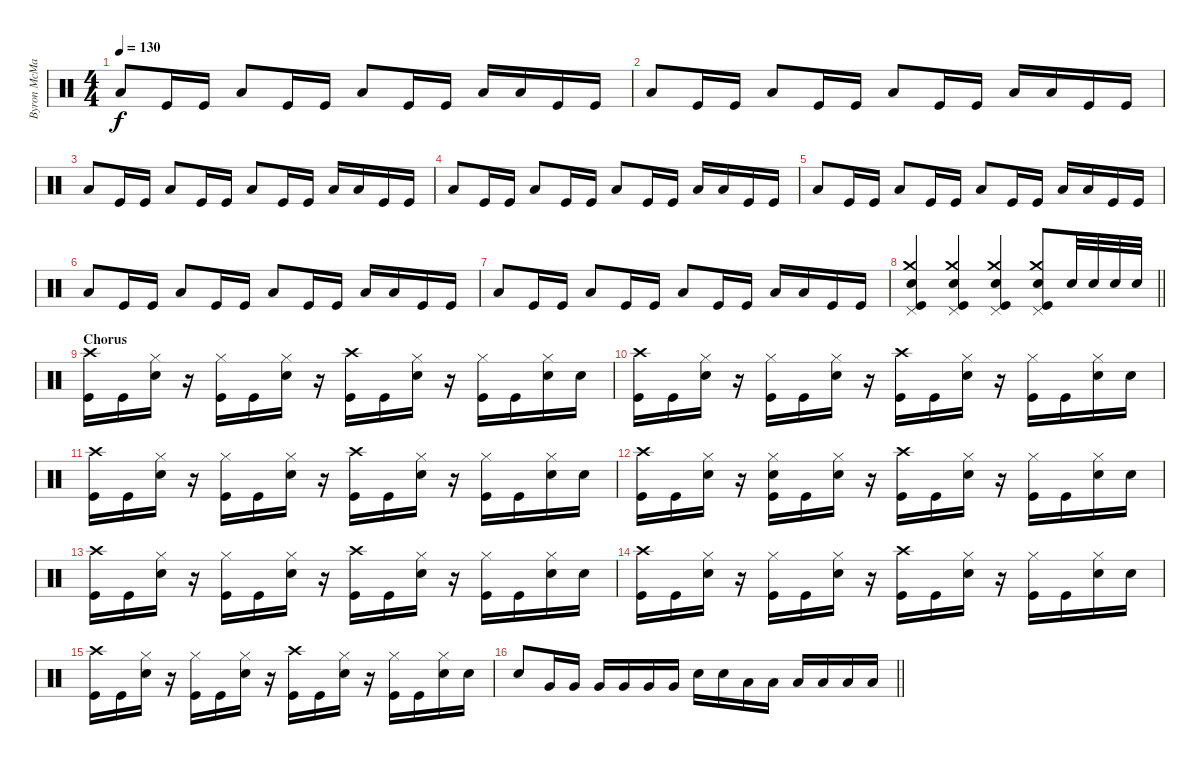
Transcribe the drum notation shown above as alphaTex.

\track ("Byron McMackin" "Byron McMa") {instrument percussion}
\staff {score}
\articulation defaults
\ts (4 4)
\tempo 130
\clef neutral
\ks c "Low Tom (hit)".8{dy f} "Kick (hit)".16 "Kick (hit)".16 "Low Tom (hit)".8 "Kick (hit)".16 "Kick (hit)".16 "Low Tom (hit)".8 "Kick (hit)".16 "Kick (hit)".16 "Low Tom (hit)".16 "Low Tom (hit)".16 "Kick (hit)".16 "Kick (hit)".16
|
"Low Tom (hit)".8 "Kick (hit)".16 "Kick (hit)".16 "Low Tom (hit)".8 "Kick (hit)".16 "Kick (hit)".16 "Low Tom (hit)".8 "Kick (hit)".16 "Kick (hit)".16 "Low Tom (hit)".16 "Low Tom (hit)".16 "Kick (hit)".16 "Kick (hit)".16 |
"Low Tom (hit)".8 "Kick (hit)".16 "Kick (hit)".16 "Low Tom (hit)".8 "Kick (hit)".16 "Kick (hit)".16 "Low Tom (hit)".8 "Kick (hit)".16 "Kick (hit)".16 "Low Tom (hit)".16 "Low Tom (hit)".16 "Kick (hit)".16 "Kick (hit)".16 |
"Low Tom (hit)".8 "Kick (hit)".16 "Kick (hit)".16 "Low Tom (hit)".8 "Kick (hit)".16 "Kick (hit)".16 "Low Tom (hit)".8 "Kick (hit)".16 "Kick (hit)".16 "Low Tom (hit)".16 "Low Tom (hit)".16 "Kick (hit)".16 "Kick (hit)".16 |
"Low Tom (hit)".8 "Kick (hit)".16 "Kick (hit)".16 "Low Tom (hit)".8 "Kick (hit)".16 "Kick (hit)".16 "Low Tom (hit)".8 "Kick (hit)".16 "Kick (hit)".16 "Low Tom (hit)".16 "Low Tom (hit)".16 "Kick (hit)".16 "Kick (hit)".16 |
"Low Tom (hit)".8 "Kick (hit)".16 "Kick (hit)".16 "Low Tom (hit)".8 "Kick (hit)".16 "Kick (hit)".16 "Low Tom (hit)".8 "Kick (hit)".16 "Kick (hit)".16 "Low Tom (hit)".16 "Low Tom (hit)".16 "Kick (hit)".16 "Kick (hit)".16 |
"Low Tom (hit)".8 "Kick (hit)".16 "Kick (hit)".16 "Low Tom (hit)".8 "Kick (hit)".16 "Kick (hit)".16 "Low Tom (hit)".8 "Kick (hit)".16 "Kick (hit)".16 "Low Tom (hit)".16 "Low Tom (hit)".16 "Kick (hit)".16 "Kick (hit)".16 |
\barLineRight lightlight
("Pedal Hi-Hat (hit)" "Crash medium (hit)" "Electric Snare (hit)" "Kick (hit)").4 ("Pedal Hi-Hat (hit)" "Crash medium (hit)" "Electric Snare (hit)" "Kick (hit)").4 ("Pedal Hi-Hat (hit)" "Crash medium (hit)" "Electric Snare (hit)" "Kick (hit)").4 ("Pedal Hi-Hat (hit)" "Crash medium (hit)" "Electric Snare (hit)" "Kick (hit)").8 "Electric Snare (hit)".32 "Electric Snare (hit)".32 "Electric Snare (hit)".32 "Electric Snare (hit)".32 |
\section ("" "Chorus")
("Crash high (hit)" "Kick (hit)").16 "Kick (hit)".16 ("Hi-Hat (closed)" "Electric Snare (hit)").16 r.16 ("Hi-Hat (closed)" "Kick (hit)").16 "Kick (hit)".16 ("Hi-Hat (closed)" "Electric Snare (hit)").16 r.16 ("Crash high (hit)" "Kick (hit)").16 "Kick (hit)".16 ("Hi-Hat (closed)" "Electric Snare (hit)").16 r.16 ("Hi-Hat (closed)" "Kick (hit)").16 "Kick (hit)".16 ("Hi-Hat (closed)" "Electric Snare (hit)").16 "Electric Snare (hit)".16 |
("Crash high (hit)" "Kick (hit)").16 "Kick (hit)".16 ("Hi-Hat (closed)" "Electric Snare (hit)").16 r.16 ("Hi-Hat (closed)" "Kick (hit)").16 "Kick (hit)".16 ("Hi-Hat (closed)" "Electric Snare (hit)").16 r.16 ("Crash high (hit)" "Kick (hit)").16 "Kick (hit)".16 ("Hi-Hat (closed)" "Electric Snare (hit)").16 r.16 ("Hi-Hat (closed)" "Kick (hit)").16 "Kick (hit)".16 ("Hi-Hat (closed)" "Electric Snare (hit)").16 "Electric Snare (hit)".16 |
("Crash high (hit)" "Kick (hit)").16 "Kick (hit)".16 ("Hi-Hat (closed)" "Electric Snare (hit)").16 r.16 ("Hi-Hat (closed)" "Kick (hit)").16 "Kick (hit)".16 ("Hi-Hat (closed)" "Electric Snare (hit)").16 r.16 ("Crash high (hit)" "Kick (hit)").16 "Kick (hit)".16 ("Hi-Hat (closed)" "Electric Snare (hit)").16 r.16 ("Hi-Hat (closed)" "Kick (hit)").16 "Kick (hit)".16 ("Hi-Hat (closed)" "Electric Snare (hit)").16 "Electric Snare (hit)".16 |
("Crash high (hit)" "Kick (hit)").16 "Kick (hit)".16 ("Hi-Hat (closed)" "Electric Snare (hit)").16 r.16 ("Hi-Hat (closed)" "Electric Snare (hit)" "Kick (hit)").16 "Kick (hit)".16 ("Hi-Hat (closed)" "Electric Snare (hit)").16 r.16 ("Crash high (hit)" "Kick (hit)").16 "Kick (hit)".16 ("Hi-Hat (closed)" "Electric Snare (hit)").16 r.16 ("Hi-Hat (closed)" "Kick (hit)").16 "Kick (hit)".16 ("Hi-Hat (closed)" "Electric Snare (hit)").16 "Electric Snare (hit)".16 |
("Crash high (hit)" "Kick (hit)").16 "Kick (hit)".16 ("Hi-Hat (closed)" "Electric Snare (hit)").16 r.16 ("Hi-Hat (closed)" "Kick (hit)").16 "Kick (hit)".16 ("Hi-Hat (closed)" "Electric Snare (hit)").16 r.16 ("Crash high (hit)" "Kick (hit)").16 "Kick (hit)".16 ("Hi-Hat (closed)" "Electric Snare (hit)").16 r.16 ("Hi-Hat (closed)" "Kick (hit)").16 "Kick (hit)".16 ("Hi-Hat (closed)" "Electric Snare (hit)").16 "Electric Snare (hit)".16 |
("Crash high (hit)" "Kick (hit)").16 "Kick (hit)".16 ("Hi-Hat (closed)" "Electric Snare (hit)").16 r.16 ("Hi-Hat (closed)" "Kick (hit)").16 "Kick (hit)".16 ("Hi-Hat (closed)" "Electric Snare (hit)").16 r.16 ("Crash high (hit)" "Kick (hit)").16 "Kick (hit)".16 ("Hi-Hat (closed)" "Electric Snare (hit)").16 r.16 ("Hi-Hat (closed)" "Kick (hit)").16 "Kick (hit)".16 ("Hi-Hat (closed)" "Electric Snare (hit)").16 "Electric Snare (hit)".16 |
("Crash high (hit)" "Kick (hit)").16 "Kick (hit)".16 ("Hi-Hat (closed)" "Electric Snare (hit)").16 r.16 ("Hi-Hat (closed)" "Kick (hit)").16 "Kick (hit)".16 ("Hi-Hat (closed)" "Electric Snare (hit)").16 r.16 ("Crash high (hit)" "Kick (hit)").16 "Kick (hit)".16 ("Hi-Hat (closed)" "Electric Snare (hit)").16 r.16 ("Hi-Hat (closed)" "Kick (hit)").16 "Kick (hit)".16 ("Hi-Hat (closed)" "Electric Snare (hit)").16 "Electric Snare (hit)".16 |
\barLineRight lightlight "Electric Snare (hit)".8 "Very Low Tom (hit)".16 "Very Low Tom (hit)".16 "Very Low Tom (hit)".16 "Very Low Tom (hit)".16 "Very Low Tom (hit)".16 "Very Low Tom (hit)".16 "Electric Snare (hit)".16 "Electric Snare (hit)".16 "Low Tom (hit)".16 "Low Tom (hit)".16 "Low Tom (hit)".16 "Low Tom (hit)".16 "Low Tom (hit)".16 "Low Tom (hit)".16
